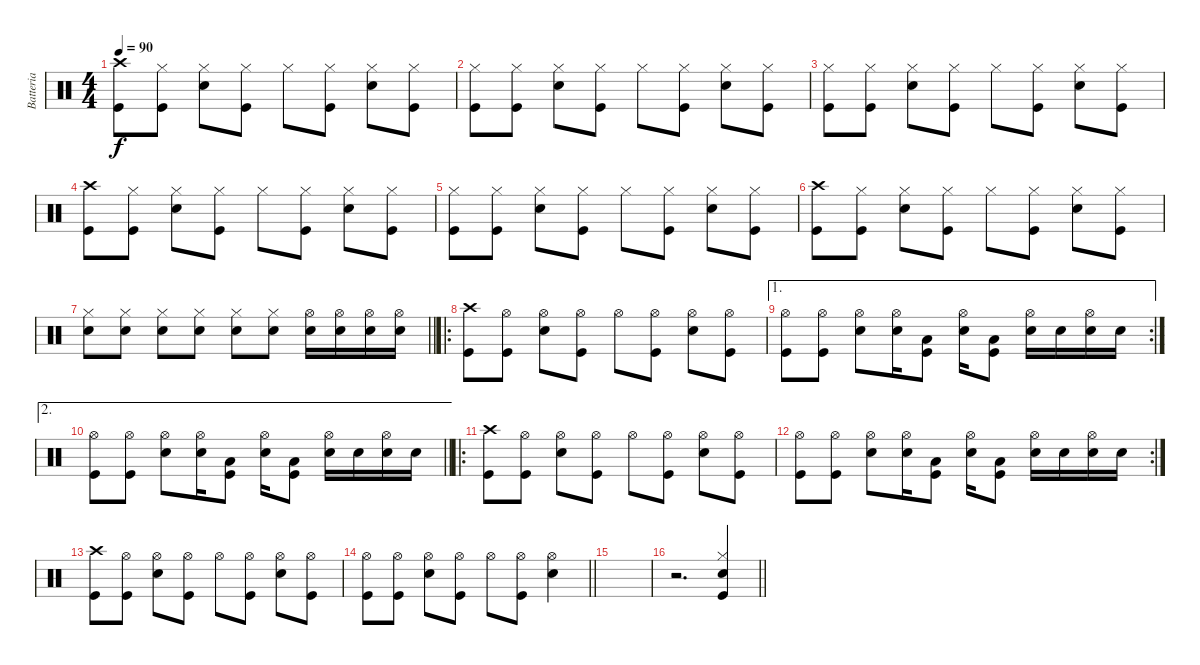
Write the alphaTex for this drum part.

\track ("Batteria" "Batteria") {instrument percussion}
\staff {score}
\articulation defaults
\ts (4 4)
\tempo 90
\clef neutral
\ks c
("Kick (hit)" "Crash high (hit)").8{dy f} ("Kick (hit)" "Hi-Hat (closed)").8 ("Snare (hit) 2" "Hi-Hat (closed)").8 ("Kick (hit)" "Hi-Hat (closed)").8 "Hi-Hat (closed)".8 ("Kick (hit)" "Hi-Hat (closed)").8 ("Snare (hit) 2" "Hi-Hat (closed)").8 ("Kick (hit)" "Hi-Hat (closed)").8 |
("Kick (hit)" "Hi-Hat (closed)").8 ("Kick (hit)" "Hi-Hat (closed)").8 ("Snare (hit) 2" "Hi-Hat (closed)").8 ("Kick (hit)" "Hi-Hat (closed)").8 "Hi-Hat (closed)".8 ("Kick (hit)" "Hi-Hat (closed)").8 ("Snare (hit) 2" "Hi-Hat (closed)").8 ("Kick (hit)" "Hi-Hat (closed)").8 |
("Kick (hit)" "Hi-Hat (closed)").8 ("Kick (hit)" "Hi-Hat (closed)").8 ("Snare (hit) 2" "Hi-Hat (closed)").8 ("Kick (hit)" "Hi-Hat (closed)").8 "Hi-Hat (closed)".8 ("Kick (hit)" "Hi-Hat (closed)").8 ("Snare (hit) 2" "Hi-Hat (closed)").8 ("Kick (hit)" "Hi-Hat (closed)").8 |
("Kick (hit)" "Crash high (hit)").8 ("Kick (hit)" "Hi-Hat (closed)").8 ("Snare (hit) 2" "Hi-Hat (closed)").8 ("Kick (hit)" "Hi-Hat (closed)").8 "Hi-Hat (closed)".8 ("Kick (hit)" "Hi-Hat (closed)").8 ("Snare (hit) 2" "Hi-Hat (closed)").8 ("Kick (hit)" "Hi-Hat (closed)").8 |
("Kick (hit)" "Hi-Hat (closed)").8 ("Kick (hit)" "Hi-Hat (closed)").8 ("Snare (hit) 2" "Hi-Hat (closed)").8 ("Kick (hit)" "Hi-Hat (closed)").8 "Hi-Hat (closed)".8 ("Kick (hit)" "Hi-Hat (closed)").8 ("Snare (hit) 2" "Hi-Hat (closed)").8 ("Kick (hit)" "Hi-Hat (closed)").8 |
("Kick (hit)" "Crash high (hit)").8 ("Kick (hit)" "Hi-Hat (closed)").8 ("Snare (hit) 2" "Hi-Hat (closed)").8 ("Kick (hit)" "Hi-Hat (closed)").8 "Hi-Hat (closed)".8 ("Kick (hit)" "Hi-Hat (closed)").8 ("Snare (hit) 2" "Hi-Hat (closed)").8 ("Kick (hit)" "Hi-Hat (closed)").8 |
\barLineRight lightlight
("Snare (hit) 2" "Hi-Hat (closed)").8 ("Snare (hit) 2" "Hi-Hat (closed)").8 ("Snare (hit) 2" "Hi-Hat (closed)").8 ("Snare (hit) 2" "Hi-Hat (closed)").8 ("Snare (hit) 2" "Hi-Hat (closed)").8 ("Snare (hit) 2" "Hi-Hat (closed)").8 ("Snare (hit) 2" "Hi-Hat (open)").16 ("Snare (hit) 2" "Hi-Hat (open)").16 ("Snare (hit) 2" "Hi-Hat (open)").16 ("Snare (hit) 2" "Hi-Hat (open)").16 |
\ro
("Kick (hit)" "Crash high (hit)").8 ("Kick (hit)" "Hi-Hat (open)").8 ("Snare (hit) 2" "Hi-Hat (open)").8 ("Kick (hit)" "Hi-Hat (open)").8 "Hi-Hat (open)".8 ("Kick (hit)" "Hi-Hat (open)").8 ("Snare (hit) 2" "Hi-Hat (open)").8 ("Kick (hit)" "Hi-Hat (open)").8 |
\ae 1
\rc 2
("Kick (hit)" "Hi-Hat (open)").8 ("Kick (hit)" "Hi-Hat (open)").8 ("Snare (hit) 2" "Hi-Hat (open)").8 ("Snare (hit) 2" "Hi-Hat (open)").16 ("Kick (hit)" "Low Floor Tom (hit)").8 ("Snare (hit) 2" "Hi-Hat (open)").16 ("Kick (hit)" "Low Floor Tom (hit)").8 ("Snare (hit) 2" "Hi-Hat (open)").16 "Snare (hit) 2".16 ("Snare (hit) 2" "Hi-Hat (open)").16 "Snare (hit) 2".16 |
\ae 2
\barLineRight lightlight
("Kick (hit)" "Hi-Hat (open)").8 ("Kick (hit)" "Hi-Hat (open)").8 ("Snare (hit) 2" "Hi-Hat (open)").8 ("Snare (hit) 2" "Hi-Hat (open)").16 ("Kick (hit)" "Low Floor Tom (hit)").8 ("Snare (hit) 2" "Hi-Hat (open)").16 ("Kick (hit)" "Low Floor Tom (hit)").8 ("Snare (hit) 2" "Hi-Hat (open)").16 "Snare (hit) 2".16 ("Snare (hit) 2" "Hi-Hat (open)").16 "Snare (hit) 2".16 |
\ro
("Kick (hit)" "Crash high (hit)").8 ("Kick (hit)" "Hi-Hat (open)").8 ("Snare (hit) 2" "Hi-Hat (open)").8 ("Kick (hit)" "Hi-Hat (open)").8 "Hi-Hat (open)".8 ("Kick (hit)" "Hi-Hat (open)").8 ("Snare (hit) 2" "Hi-Hat (open)").8 ("Kick (hit)" "Hi-Hat (open)").8 |
\rc 2
("Kick (hit)" "Hi-Hat (open)").8 ("Kick (hit)" "Hi-Hat (open)").8 ("Snare (hit) 2" "Hi-Hat (open)").8 ("Snare (hit) 2" "Hi-Hat (open)").16 ("Kick (hit)" "Low Floor Tom (hit)").8 ("Snare (hit) 2" "Hi-Hat (open)").16 ("Kick (hit)" "Low Floor Tom (hit)").8 ("Snare (hit) 2" "Hi-Hat (open)").16 "Snare (hit) 2".16 ("Snare (hit) 2" "Hi-Hat (open)").16 "Snare (hit) 2".16 |
("Kick (hit)" "Crash high (hit)").8 ("Kick (hit)" "Hi-Hat (open)").8 ("Snare (hit) 2" "Hi-Hat (open)").8 ("Kick (hit)" "Hi-Hat (open)").8 "Hi-Hat (open)".8 ("Kick (hit)" "Hi-Hat (open)").8 ("Snare (hit) 2" "Hi-Hat (open)").8 ("Kick (hit)" "Hi-Hat (open)").8 |
\barLineRight lightlight
("Kick (hit)" "Hi-Hat (open)").8 ("Kick (hit)" "Hi-Hat (open)").8 ("Snare (hit) 2" "Hi-Hat (open)").8 ("Kick (hit)" "Hi-Hat (open)").8 "Hi-Hat (open)".8 ("Kick (hit)" "Hi-Hat (open)").8 ("Snare (hit) 2" "Hi-Hat (open)").4 |
|
\barLineRight lightlight
r.2{d} ("Snare (hit) 2" "Hi-Hat (closed)" "Kick (hit)").4
